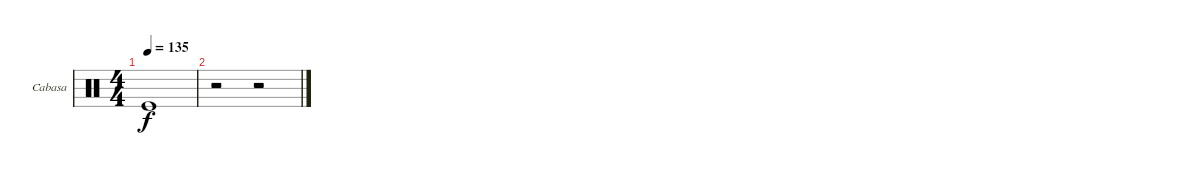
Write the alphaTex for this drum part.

\bracketExtendMode groupsimilarinstruments
\firstSystemTrackNameOrientation horizontal
\otherSystemsTrackNameOrientation horizontal
\track ("Cabasa" "Cabasa") {instrument percussion}
\staff {score}
\articulation defaults
\ts (4 4)
\tempo 135
\clef neutral
\ks c "Kick (hit)".1{dy f}
|
r.2 r.2
